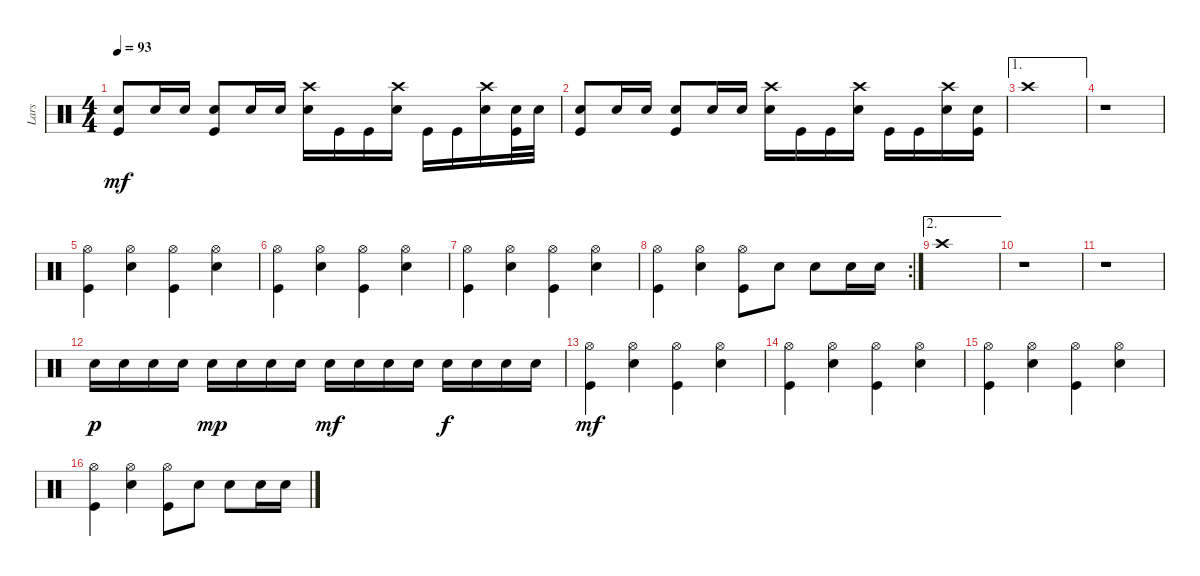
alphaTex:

\track ("Lars" "Lars") {instrument percussion}
\staff {score}
\articulation defaults
\ts (4 4)
\tempo 93
\clef neutral
\ks c
("Snare (hit) 2" "Kick (hit)").8{dy mf} "Snare (hit) 2".16 "Snare (hit) 2".16 ("Snare (hit) 2" "Kick (hit)").8 "Snare (hit) 2".16 "Snare (hit) 2".16 ("Crash high (hit)" "Snare (hit) 2").16 "Kick (hit)".16 "Kick (hit)".16 ("Crash high (hit)" "Snare (hit) 2").16 "Kick (hit)".16 "Kick (hit)".16 ("Crash high (hit)" "Snare (hit) 2").16 ("Snare (hit) 2" "Kick (hit)").32 "Snare (hit) 2".32 |
("Snare (hit) 2" "Kick (hit)").8 "Snare (hit) 2".16 "Snare (hit) 2".16 ("Snare (hit) 2" "Kick (hit)").8 "Snare (hit) 2".16 "Snare (hit) 2".16 ("Crash high (hit)" "Snare (hit) 2").16 "Kick (hit)".16 "Kick (hit)".16 ("Crash high (hit)" "Snare (hit) 2").16 "Kick (hit)".16 "Kick (hit)".16 ("Crash high (hit)" "Snare (hit) 2").16 ("Snare (hit) 2" "Kick (hit)").16 |
\ae 1 "Crash high (hit)".1
|
r.1 |
("Hi-Hat (open)" "Kick (hit)").4 ("Hi-Hat (open)" "Snare (hit) 2").4 ("Hi-Hat (open)" "Kick (hit)").4 ("Hi-Hat (open)" "Snare (hit) 2").4 |
("Hi-Hat (open)" "Kick (hit)").4 ("Hi-Hat (open)" "Snare (hit) 2").4 ("Hi-Hat (open)" "Kick (hit)").4 ("Hi-Hat (open)" "Snare (hit) 2").4 |
("Hi-Hat (open)" "Kick (hit)").4 ("Hi-Hat (open)" "Snare (hit) 2").4 ("Hi-Hat (open)" "Kick (hit)").4 ("Hi-Hat (open)" "Snare (hit) 2").4 |
\rc 2
("Hi-Hat (open)" "Kick (hit)").4 ("Hi-Hat (open)" "Snare (hit) 2").4 ("Hi-Hat (open)" "Kick (hit)").8 "Snare (hit) 2".8 "Snare (hit) 2".8 "Snare (hit) 2".16 "Snare (hit) 2".16 |
\ae 2 "Crash high (hit)".1
|
r.1 |
r.1 |
"Snare (hit) 2".16{dy p} "Snare (hit) 2".16 "Snare (hit) 2".16 "Snare (hit) 2".16 "Snare (hit) 2".16{dy mp} "Snare (hit) 2".16 "Snare (hit) 2".16 "Snare (hit) 2".16 "Snare (hit) 2".16{dy mf} "Snare (hit) 2".16 "Snare (hit) 2".16 "Snare (hit) 2".16 "Snare (hit) 2".16{dy f} "Snare (hit) 2".16 "Snare (hit) 2".16 "Snare (hit) 2".16 |
("Hi-Hat (open)" "Kick (hit)").4{dy mf} ("Hi-Hat (open)" "Snare (hit) 2").4 ("Hi-Hat (open)" "Kick (hit)").4 ("Hi-Hat (open)" "Snare (hit) 2").4 |
("Hi-Hat (open)" "Kick (hit)").4 ("Hi-Hat (open)" "Snare (hit) 2").4 ("Hi-Hat (open)" "Kick (hit)").4 ("Hi-Hat (open)" "Snare (hit) 2").4 |
("Hi-Hat (open)" "Kick (hit)").4 ("Hi-Hat (open)" "Snare (hit) 2").4 ("Hi-Hat (open)" "Kick (hit)").4 ("Hi-Hat (open)" "Snare (hit) 2").4 |
("Hi-Hat (open)" "Kick (hit)").4 ("Hi-Hat (open)" "Snare (hit) 2").4 ("Hi-Hat (open)" "Kick (hit)").8 "Snare (hit) 2".8 "Snare (hit) 2".8 "Snare (hit) 2".16 "Snare (hit) 2".16
